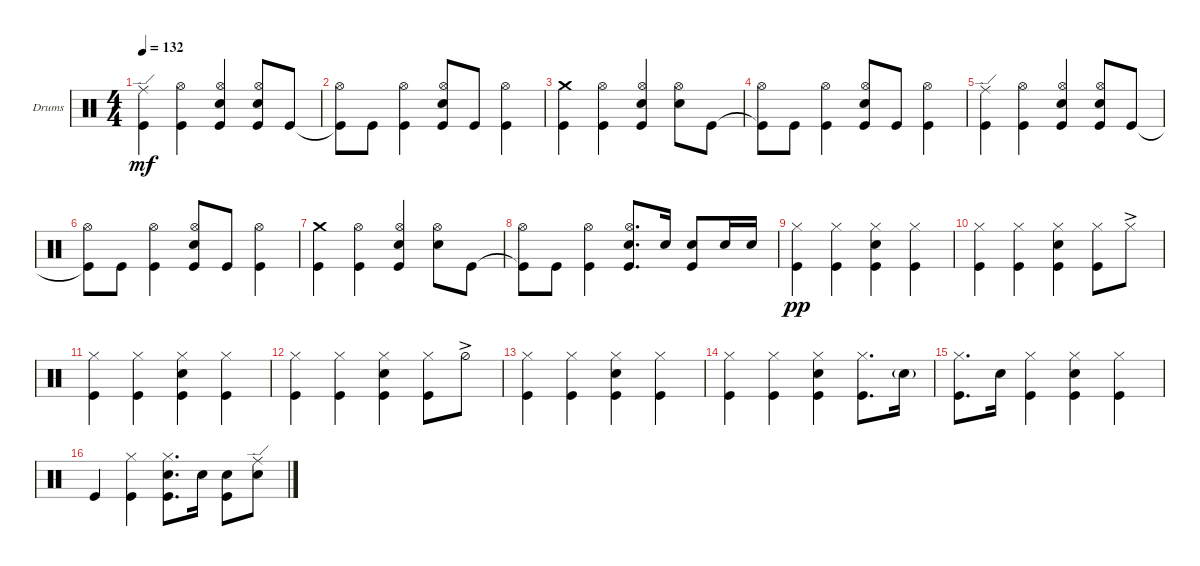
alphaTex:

\defaultSystemsLayout 4
\bracketExtendMode groupsimilarinstruments
\firstSystemTrackNameOrientation horizontal
\otherSystemsTrackNameOrientation horizontal
\track ("Steve Judd" "Drums") {instrument percussion}
\staff {score}
\articulation defaults
\ts (4 4)
\tempo 132
\clef neutral
\scale
0.333333
\ks c
("Kick (hit)" "Ride (edge)").4{dy mf} ("Kick (hit)" "Hi-Hat (open)").4 ("Kick (hit)" "Snare (hit) 2" "Hi-Hat (open)").4 ("Kick (hit)" "Hi-Hat (open)" "Snare (hit) 2").8 "Kick (hit)".8 |
\scale
0.333333 ("Kick (hit)"{t} "Hi-Hat (open)").8 "Kick (hit)".8 ("Kick (hit)" "Hi-Hat (open)").4 ("Hi-Hat (open)" "Snare (hit) 2" "Kick (hit)").8 "Kick (hit)".8 ("Kick (hit)" "Hi-Hat (open)").4 |
\scale
0.333333 ("Crash medium (hit)" "Kick (hit)").4 ("Kick (hit)" "Hi-Hat (open)").4 ("Kick (hit)" "Snare (hit) 2" "Hi-Hat (open)").4 ("Snare (hit) 2" "Hi-Hat (open)").8 "Kick (hit)".8 |
\scale
0.333333 ("Kick (hit)"{t} "Hi-Hat (open)").8 "Kick (hit)".8 ("Kick (hit)" "Hi-Hat (open)").4 ("Kick (hit)" "Snare (hit) 2" "Hi-Hat (open)").8 "Kick (hit)".8 ("Kick (hit)" "Hi-Hat (open)").4 |
\scale
0.333333 ("Kick (hit)" "Ride (edge)").4 ("Kick (hit)" "Hi-Hat (open)").4 ("Kick (hit)" "Snare (hit) 2" "Hi-Hat (open)").4 ("Kick (hit)" "Hi-Hat (open)" "Snare (hit) 2").8 "Kick (hit)".8 |
\scale
0.333333 ("Kick (hit)"{t} "Hi-Hat (open)").8 "Kick (hit)".8 ("Kick (hit)" "Hi-Hat (open)").4 ("Hi-Hat (open)" "Snare (hit) 2" "Kick (hit)").8 "Kick (hit)".8 ("Kick (hit)" "Hi-Hat (open)").4 |
\scale
0.333333 ("Crash medium (hit)" "Kick (hit)").4 ("Kick (hit)" "Hi-Hat (open)").4 ("Kick (hit)" "Snare (hit) 2" "Hi-Hat (open)").4 ("Snare (hit) 2" "Hi-Hat (open)").8 "Kick (hit)".8 |
\scale
0.333333 ("Kick (hit)"{t} "Hi-Hat (open)").8 "Kick (hit)".8 ("Kick (hit)" "Hi-Hat (open)").4 ("Kick (hit)" "Snare (hit) 2" "Hi-Hat (open)").8{d} "Snare (hit) 2".16 ("Kick (hit)" "Snare (hit) 2").8 "Snare (hit) 2".16 "Snare (hit) 2".16 |
\scale
0.333333 ("Kick (hit)" "Hi-Hat (closed)").4{dy pp} ("Kick (hit)" "Hi-Hat (closed)").4 ("Kick (hit)" "Snare (hit) 2" "Hi-Hat (closed)").4 ("Kick (hit)" "Hi-Hat (closed)").4 |
\scale
0.333333 ("Kick (hit)" "Hi-Hat (closed)").4 ("Kick (hit)" "Hi-Hat (closed)").4 ("Kick (hit)" "Snare (hit) 2" "Hi-Hat (closed)").4 ("Kick (hit)" "Hi-Hat (closed)").8 "Hi-Hat (closed)"{ac}.8 |
\scale
0.333333 ("Kick (hit)" "Hi-Hat (closed)").4 ("Kick (hit)" "Hi-Hat (closed)").4 ("Kick (hit)" "Snare (hit) 2" "Hi-Hat (closed)").4 ("Kick (hit)" "Hi-Hat (closed)").4 |
\scale
0.333333 ("Kick (hit)" "Hi-Hat (closed)").4 ("Kick (hit)" "Hi-Hat (closed)").4 ("Kick (hit)" "Snare (hit) 2" "Hi-Hat (closed)").4 ("Kick (hit)" "Hi-Hat (closed)").8 "Hi-Hat (half)"{ac}.8 |
\scale
0.333333 ("Kick (hit)" "Hi-Hat (closed)").4 ("Kick (hit)" "Hi-Hat (closed)").4 ("Kick (hit)" "Snare (hit) 2" "Hi-Hat (closed)").4 ("Kick (hit)" "Hi-Hat (closed)").4 |
\scale
0.333333 ("Kick (hit)" "Hi-Hat (closed)").4 ("Kick (hit)" "Hi-Hat (closed)").4 ("Kick (hit)" "Snare (hit) 2" "Hi-Hat (closed)").4 ("Kick (hit)" "Hi-Hat (closed)").8{d} "Snare (hit) 2"{g}.16 |
\scale
0.333333 ("Kick (hit)" "Hi-Hat (closed)").8{d} "Snare (hit) 2".16 ("Kick (hit)" "Hi-Hat (closed)").4 ("Kick (hit)" "Snare (hit) 2" "Hi-Hat (closed)").4 ("Kick (hit)" "Hi-Hat (closed)").4 |
\scale
0.333333 "Kick (hit)".4 ("Kick (hit)" "Hi-Hat (closed)").4 ("Kick (hit)" "Snare (hit) 2" "Hi-Hat (closed)").8{d} "Snare (hit) 2".16 ("Kick (hit)" "Snare (hit) 2").8 ("Snare (hit) 2" "Ride (edge)").8
